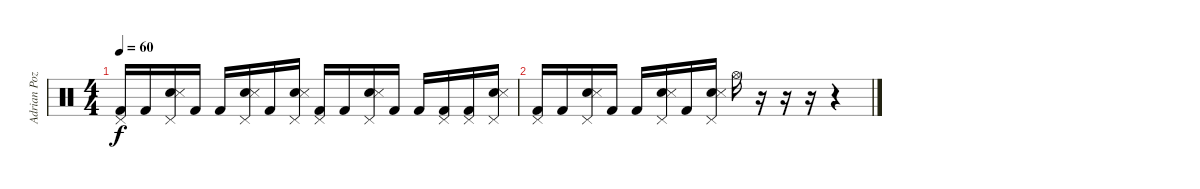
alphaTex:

\track ("Adrian Pozo" "Adrian Poz") {instrument percussion}
\staff {score}
\articulation defaults
\ts (4 4)
\tempo 60
\clef neutral
\ks c
("Kick (hit) 2" "Pedal Hi-Hat (hit)").16{dy f} "Kick (hit) 2".16 ("Snare (hit) 2" "Snare (side stick) 3" "Pedal Hi-Hat (hit)").16 "Kick (hit) 2".16 "Kick (hit) 2".16 ("Snare (hit) 2" "Snare (side stick) 3" "Pedal Hi-Hat (hit)").16 "Kick (hit) 2".16 ("Snare (hit) 2" "Snare (side stick) 3" "Pedal Hi-Hat (hit)").16 ("Kick (hit) 2" "Pedal Hi-Hat (hit)").16 "Kick (hit) 2".16 ("Snare (hit) 2" "Snare (side stick) 3" "Pedal Hi-Hat (hit)").16 "Kick (hit) 2".16 "Kick (hit) 2".16 ("Kick (hit) 2" "Pedal Hi-Hat (hit)").16 ("Kick (hit) 2" "Pedal Hi-Hat (hit)").16 ("Snare (hit) 2" "Snare (side stick) 3" "Pedal Hi-Hat (hit)").16 |
("Kick (hit) 2" "Pedal Hi-Hat (hit)").16 "Kick (hit) 2".16 ("Snare (hit) 2" "Snare (side stick) 3" "Pedal Hi-Hat (hit)").16 "Kick (hit) 2".16 "Kick (hit) 2".16 ("Snare (hit) 2" "Snare (side stick) 3" "Pedal Hi-Hat (hit)").16 "Kick (hit) 2".16 ("Snare (hit) 2" "Snare (side stick) 3" "Pedal Hi-Hat (hit)").16 "Hi-Hat (open)".16 r.16 r.16 r.16 r.4
